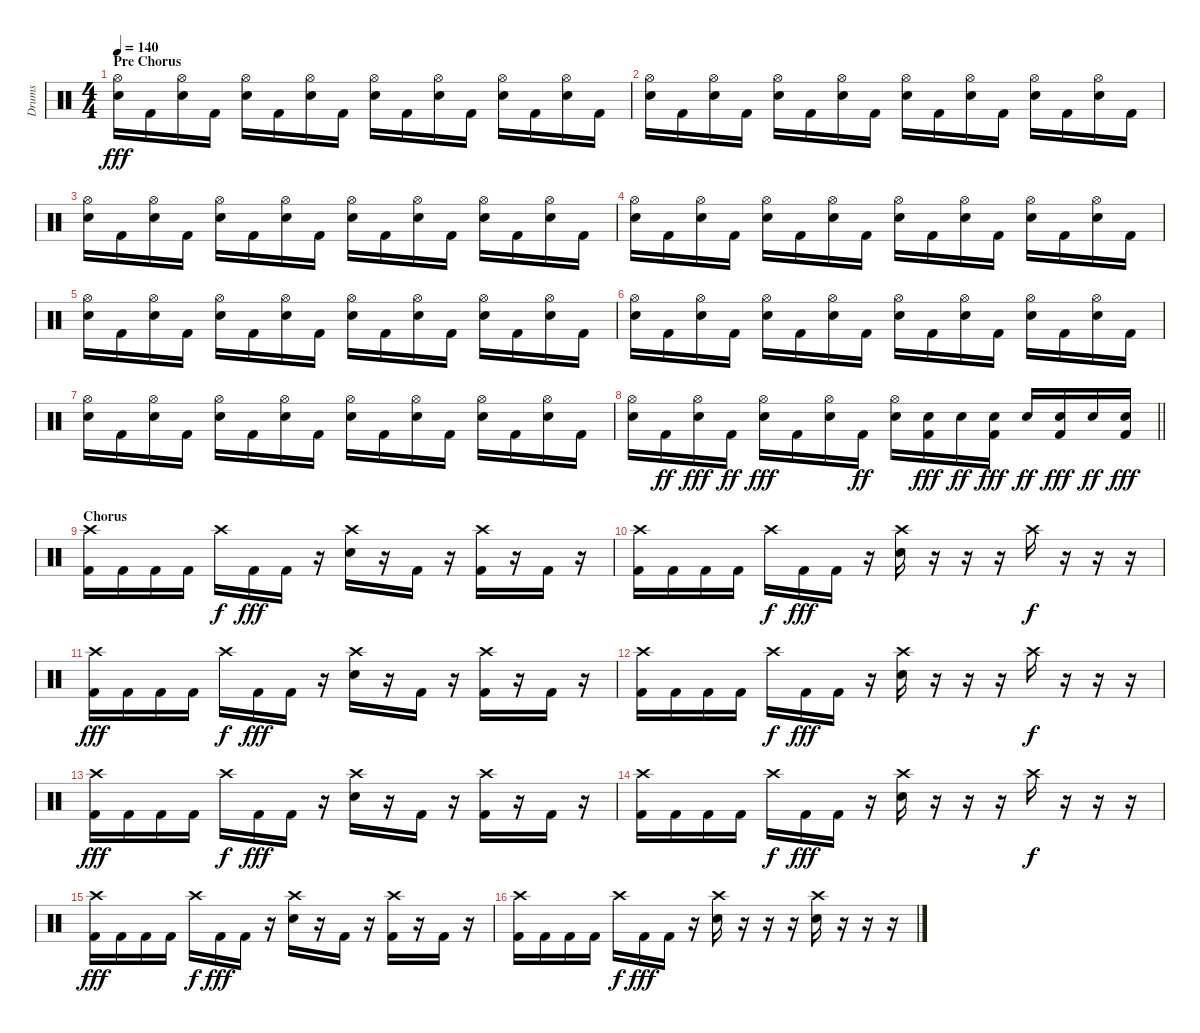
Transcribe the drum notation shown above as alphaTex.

\track ("Drums" "Drums") {instrument percussion}
\staff {score}
\articulation defaults
\ts (4 4)
\section ("" "Pre Chorus")
\tempo 140
\clef neutral
\ks c
("Hi-Hat (open)" "Electric Snare (hit)").16{dy fff} "Kick (hit) 2".16 ("Hi-Hat (open)" "Electric Snare (hit)").16 "Kick (hit) 2".16 ("Hi-Hat (open)" "Electric Snare (hit)").16 "Kick (hit) 2".16 ("Hi-Hat (open)" "Electric Snare (hit)").16 "Kick (hit) 2".16 ("Hi-Hat (open)" "Electric Snare (hit)").16 "Kick (hit) 2".16 ("Hi-Hat (open)" "Electric Snare (hit)").16 "Kick (hit) 2".16 ("Hi-Hat (open)" "Electric Snare (hit)").16 "Kick (hit) 2".16 ("Hi-Hat (open)" "Electric Snare (hit)").16 "Kick (hit) 2".16 |
("Hi-Hat (open)" "Electric Snare (hit)").16 "Kick (hit) 2".16 ("Hi-Hat (open)" "Electric Snare (hit)").16 "Kick (hit) 2".16 ("Hi-Hat (open)" "Electric Snare (hit)").16 "Kick (hit) 2".16 ("Hi-Hat (open)" "Electric Snare (hit)").16 "Kick (hit) 2".16 ("Hi-Hat (open)" "Electric Snare (hit)").16 "Kick (hit) 2".16 ("Hi-Hat (open)" "Electric Snare (hit)").16 "Kick (hit) 2".16 ("Hi-Hat (open)" "Electric Snare (hit)").16 "Kick (hit) 2".16 ("Hi-Hat (open)" "Electric Snare (hit)").16 "Kick (hit) 2".16 |
("Hi-Hat (open)" "Electric Snare (hit)").16 "Kick (hit) 2".16 ("Hi-Hat (open)" "Electric Snare (hit)").16 "Kick (hit) 2".16 ("Hi-Hat (open)" "Electric Snare (hit)").16 "Kick (hit) 2".16 ("Hi-Hat (open)" "Electric Snare (hit)").16 "Kick (hit) 2".16 ("Hi-Hat (open)" "Electric Snare (hit)").16 "Kick (hit) 2".16 ("Hi-Hat (open)" "Electric Snare (hit)").16 "Kick (hit) 2".16 ("Hi-Hat (open)" "Electric Snare (hit)").16 "Kick (hit) 2".16 ("Hi-Hat (open)" "Electric Snare (hit)").16 "Kick (hit) 2".16 |
("Hi-Hat (open)" "Electric Snare (hit)").16 "Kick (hit) 2".16 ("Hi-Hat (open)" "Electric Snare (hit)").16 "Kick (hit) 2".16 ("Hi-Hat (open)" "Electric Snare (hit)").16 "Kick (hit) 2".16 ("Hi-Hat (open)" "Electric Snare (hit)").16 "Kick (hit) 2".16 ("Hi-Hat (open)" "Electric Snare (hit)").16 "Kick (hit) 2".16 ("Hi-Hat (open)" "Electric Snare (hit)").16 "Kick (hit) 2".16 ("Hi-Hat (open)" "Electric Snare (hit)").16 "Kick (hit) 2".16 ("Hi-Hat (open)" "Electric Snare (hit)").16 "Kick (hit) 2".16 |
("Hi-Hat (open)" "Electric Snare (hit)").16 "Kick (hit) 2".16 ("Hi-Hat (open)" "Electric Snare (hit)").16 "Kick (hit) 2".16 ("Hi-Hat (open)" "Electric Snare (hit)").16 "Kick (hit) 2".16 ("Hi-Hat (open)" "Electric Snare (hit)").16 "Kick (hit) 2".16 ("Hi-Hat (open)" "Electric Snare (hit)").16 "Kick (hit) 2".16 ("Hi-Hat (open)" "Electric Snare (hit)").16 "Kick (hit) 2".16 ("Hi-Hat (open)" "Electric Snare (hit)").16 "Kick (hit) 2".16 ("Hi-Hat (open)" "Electric Snare (hit)").16 "Kick (hit) 2".16 |
("Hi-Hat (open)" "Electric Snare (hit)").16 "Kick (hit) 2".16 ("Hi-Hat (open)" "Electric Snare (hit)").16 "Kick (hit) 2".16 ("Hi-Hat (open)" "Electric Snare (hit)").16 "Kick (hit) 2".16 ("Hi-Hat (open)" "Electric Snare (hit)").16 "Kick (hit) 2".16 ("Hi-Hat (open)" "Electric Snare (hit)").16 "Kick (hit) 2".16 ("Hi-Hat (open)" "Electric Snare (hit)").16 "Kick (hit) 2".16 ("Hi-Hat (open)" "Electric Snare (hit)").16 "Kick (hit) 2".16 ("Hi-Hat (open)" "Electric Snare (hit)").16 "Kick (hit) 2".16 |
("Hi-Hat (open)" "Electric Snare (hit)").16 "Kick (hit) 2".16 ("Hi-Hat (open)" "Electric Snare (hit)").16 "Kick (hit) 2".16 ("Hi-Hat (open)" "Electric Snare (hit)").16 "Kick (hit) 2".16 ("Hi-Hat (open)" "Electric Snare (hit)").16 "Kick (hit) 2".16 ("Hi-Hat (open)" "Electric Snare (hit)").16 "Kick (hit) 2".16 ("Hi-Hat (open)" "Electric Snare (hit)").16 "Kick (hit) 2".16 ("Hi-Hat (open)" "Electric Snare (hit)").16 "Kick (hit) 2".16 ("Hi-Hat (open)" "Electric Snare (hit)").16 "Kick (hit) 2".16 |
\barLineRight lightlight
("Hi-Hat (open)" "Electric Snare (hit)").16 "Kick (hit) 2".16{dy ff} ("Hi-Hat (open)" "Electric Snare (hit)").16{dy fff} "Kick (hit) 2".16{dy ff} ("Hi-Hat (open)" "Electric Snare (hit)").16{dy fff} "Kick (hit) 2".16 ("Hi-Hat (open)" "Electric Snare (hit)").16 "Kick (hit) 2".16{dy ff} ("Hi-Hat (open)" "Electric Snare (hit)").16 ("Electric Snare (hit)" "Kick (hit) 2").16{dy fff} "Electric Snare (hit)".16{dy ff} ("Electric Snare (hit)" "Kick (hit) 2").16{dy fff} "Electric Snare (hit)".16{dy ff} ("Electric Snare (hit)" "Kick (hit) 2").16{dy fff} "Electric Snare (hit)".16{dy ff} ("Electric Snare (hit)" "Kick (hit) 2").16{dy fff} |
\section ("" "Chorus")
("Crash high (hit)" "Kick (hit) 2").16 "Kick (hit) 2".16 "Kick (hit) 2".16 "Kick (hit) 2".16 "Crash high (hit)".16{dy f} "Kick (hit) 2".16{dy fff} "Kick (hit) 2".16 r.16 ("Crash high (hit)" "Electric Snare (hit)").16 r.16 "Kick (hit) 2".16 r.16 ("Crash high (hit)" "Kick (hit) 2").16 r.16 "Kick (hit) 2".16 r.16 |
("Crash high (hit)" "Kick (hit) 2").16 "Kick (hit) 2".16 "Kick (hit) 2".16 "Kick (hit) 2".16 "Crash high (hit)".16{dy f} "Kick (hit) 2".16{dy fff} "Kick (hit) 2".16 r.16 ("Crash high (hit)" "Electric Snare (hit)").16 r.16 r.16 r.16 "Crash high (hit)".16{dy f} r.16 r.16 r.16 |
("Crash high (hit)" "Kick (hit) 2").16{dy fff} "Kick (hit) 2".16 "Kick (hit) 2".16 "Kick (hit) 2".16 "Crash high (hit)".16{dy f} "Kick (hit) 2".16{dy fff} "Kick (hit) 2".16 r.16 ("Crash high (hit)" "Electric Snare (hit)").16 r.16 "Kick (hit) 2".16 r.16 ("Crash high (hit)" "Kick (hit) 2").16 r.16 "Kick (hit) 2".16 r.16 |
("Crash high (hit)" "Kick (hit) 2").16 "Kick (hit) 2".16 "Kick (hit) 2".16 "Kick (hit) 2".16 "Crash high (hit)".16{dy f} "Kick (hit) 2".16{dy fff} "Kick (hit) 2".16 r.16 ("Crash high (hit)" "Electric Snare (hit)").16 r.16 r.16 r.16 "Crash high (hit)".16{dy f} r.16 r.16 r.16 |
("Crash high (hit)" "Kick (hit) 2").16{dy fff} "Kick (hit) 2".16 "Kick (hit) 2".16 "Kick (hit) 2".16 "Crash high (hit)".16{dy f} "Kick (hit) 2".16{dy fff} "Kick (hit) 2".16 r.16 ("Crash high (hit)" "Electric Snare (hit)").16 r.16 "Kick (hit) 2".16 r.16 ("Crash high (hit)" "Kick (hit) 2").16 r.16 "Kick (hit) 2".16 r.16 |
("Crash high (hit)" "Kick (hit) 2").16 "Kick (hit) 2".16 "Kick (hit) 2".16 "Kick (hit) 2".16 "Crash high (hit)".16{dy f} "Kick (hit) 2".16{dy fff} "Kick (hit) 2".16 r.16 ("Crash high (hit)" "Electric Snare (hit)").16 r.16 r.16 r.16 "Crash high (hit)".16{dy f} r.16 r.16 r.16 |
("Crash high (hit)" "Kick (hit) 2").16{dy fff} "Kick (hit) 2".16 "Kick (hit) 2".16 "Kick (hit) 2".16 "Crash high (hit)".16{dy f} "Kick (hit) 2".16{dy fff} "Kick (hit) 2".16 r.16 ("Crash high (hit)" "Electric Snare (hit)").16 r.16 "Kick (hit) 2".16 r.16 ("Crash high (hit)" "Kick (hit) 2").16 r.16 "Kick (hit) 2".16 r.16 |
("Crash high (hit)" "Kick (hit) 2").16 "Kick (hit) 2".16 "Kick (hit) 2".16 "Kick (hit) 2".16 "Crash high (hit)".16{dy f} "Kick (hit) 2".16{dy fff} "Kick (hit) 2".16 r.16 ("Crash high (hit)" "Electric Snare (hit)").16 r.16 r.16 r.16 ("Crash high (hit)" "Electric Snare (hit)").16 r.16 r.16 r.16
